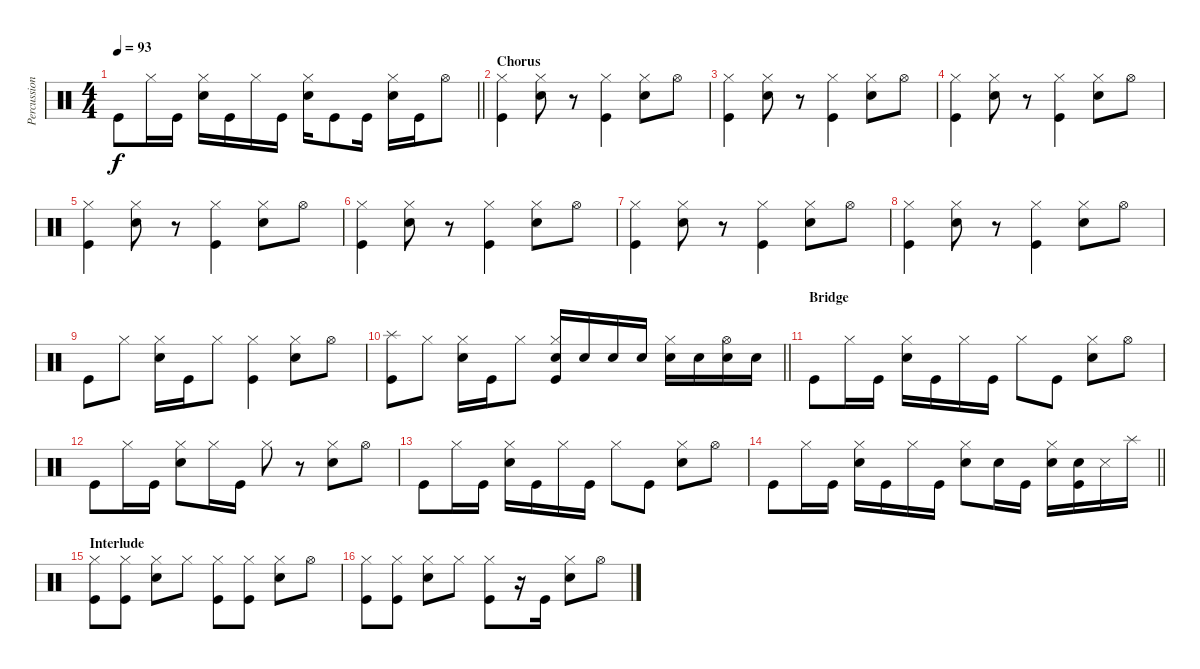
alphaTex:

\track ("Percussion" "Percussion") {instrument percussion}
\staff {score}
\articulation defaults
\ts (4 4)
\tempo 93
\clef neutral
\barLineRight lightlight
\ks c "Kick (hit)".8{dy f} "Hi-Hat (closed)".16 "Kick (hit)".16
("Hi-Hat (closed)" "Snare (hit) 2").16 "Kick (hit)".16 "Hi-Hat (closed)".16 "Kick (hit)".16 ("Hi-Hat (closed)" "Snare (hit) 2").16 "Kick (hit)".8 "Kick (hit)".16 ("Hi-Hat (closed)" "Snare (hit) 2").16 "Kick (hit)".16 "Hi-Hat (open)".8 |
\section ("" "Chorus")
("Hi-Hat (closed)" "Kick (hit)").4 ("Hi-Hat (closed)" "Snare (hit) 2").8 r.8 ("Hi-Hat (closed)" "Kick (hit)").4 ("Hi-Hat (closed)" "Snare (hit) 2").8 "Hi-Hat (open)".8 |
("Hi-Hat (closed)" "Kick (hit)").4 ("Hi-Hat (closed)" "Snare (hit) 2").8 r.8 ("Hi-Hat (closed)" "Kick (hit)").4 ("Hi-Hat (closed)" "Snare (hit) 2").8 "Hi-Hat (open)".8 |
("Hi-Hat (closed)" "Kick (hit)").4 ("Hi-Hat (closed)" "Snare (hit) 2").8 r.8 ("Hi-Hat (closed)" "Kick (hit)").4 ("Hi-Hat (closed)" "Snare (hit) 2").8 "Hi-Hat (open)".8 |
("Hi-Hat (closed)" "Kick (hit)").4 ("Hi-Hat (closed)" "Snare (hit) 2").8 r.8 ("Hi-Hat (closed)" "Kick (hit)").4 ("Hi-Hat (closed)" "Snare (hit) 2").8 "Hi-Hat (open)".8 |
("Hi-Hat (closed)" "Kick (hit)").4 ("Hi-Hat (closed)" "Snare (hit) 2").8 r.8 ("Hi-Hat (closed)" "Kick (hit)").4 ("Hi-Hat (closed)" "Snare (hit) 2").8 "Hi-Hat (open)".8 |
("Hi-Hat (closed)" "Kick (hit)").4 ("Hi-Hat (closed)" "Snare (hit) 2").8 r.8 ("Hi-Hat (closed)" "Kick (hit)").4 ("Hi-Hat (closed)" "Snare (hit) 2").8 "Hi-Hat (open)".8 |
("Hi-Hat (closed)" "Kick (hit)").4 ("Hi-Hat (closed)" "Snare (hit) 2").8 r.8 ("Hi-Hat (closed)" "Kick (hit)").4 ("Hi-Hat (closed)" "Snare (hit) 2").8 "Hi-Hat (open)".8 |
"Kick (hit)".8 "Hi-Hat (closed)".8 ("Hi-Hat (closed)" "Snare (hit) 2").16 "Kick (hit)".16 "Hi-Hat (closed)".8 ("Hi-Hat (closed)" "Kick (hit)").4 ("Hi-Hat (closed)" "Snare (hit) 2").8 "Hi-Hat (open)".8 |
\barLineRight lightlight
("Splash (hit)" "Kick (hit)").8 "Hi-Hat (closed)".8 ("Hi-Hat (closed)" "Snare (hit) 2").16 "Kick (hit)".16 "Hi-Hat (closed)".8 ("Hi-Hat (closed)" "Snare (hit) 2" "Kick (hit)").16 "Snare (hit) 2".16 "Snare (hit) 2".16 "Snare (hit) 2".16 ("Hi-Hat (closed)" "Snare (hit) 2").16 "Snare (hit) 2".16 ("Hi-Hat (open)" "Snare (hit) 2").16 "Snare (hit) 2".16 |
\section ("" "Bridge")
"Kick (hit)".8 "Hi-Hat (closed)".16 "Kick (hit)".16 ("Hi-Hat (closed)" "Snare (hit) 2").16 "Kick (hit)".16 "Hi-Hat (closed)".16 "Kick (hit)".16 "Hi-Hat (closed)".8 "Kick (hit)".8 ("Hi-Hat (closed)" "Snare (hit) 2").8 "Hi-Hat (open)".8 |
"Kick (hit)".8 "Hi-Hat (closed)".16 "Kick (hit)".16 ("Hi-Hat (closed)" "Snare (hit) 2").8 "Hi-Hat (closed)".16 "Kick (hit)".16 "Hi-Hat (closed)".8 r.8 ("Hi-Hat (closed)" "Snare (hit) 2").8 "Hi-Hat (open)".8 |
"Kick (hit)".8 "Hi-Hat (closed)".16 "Kick (hit)".16 ("Hi-Hat (closed)" "Snare (hit) 2").16 "Kick (hit)".16 "Hi-Hat (closed)".16 "Kick (hit)".16 "Hi-Hat (closed)".8 "Kick (hit)".8 ("Hi-Hat (closed)" "Snare (hit) 2").8 "Hi-Hat (open)".8 |
\barLineRight lightlight "Kick (hit)".8 "Hi-Hat (closed)".16 "Kick (hit)".16
("Hi-Hat (closed)" "Snare (hit) 2").16 "Kick (hit)".16 "Hi-Hat (closed)".16 "Kick (hit)".16 ("Hi-Hat (closed)" "Snare (hit) 2").8 "Snare (hit) 2".16 "Kick (hit)".16 ("Hi-Hat (closed)" "Snare (hit) 2").16 ("Snare (hit) 2" "Kick (hit)").16 "Snare (side stick) 3".16 "Splash (hit)".16 |
\section ("" "Interlude")
("Hi-Hat (closed)" "Kick (hit)").8 ("Hi-Hat (closed)" "Kick (hit)").8 ("Hi-Hat (closed)" "Snare (hit) 2").8 "Hi-Hat (closed)".8 ("Hi-Hat (closed)" "Kick (hit)").8 ("Hi-Hat (closed)" "Kick (hit)").8 ("Hi-Hat (closed)" "Snare (hit) 2").8 "Hi-Hat (open)".8 |
("Hi-Hat (closed)" "Kick (hit)").8 ("Hi-Hat (closed)" "Kick (hit)").8 ("Hi-Hat (closed)" "Snare (hit) 2").8 "Hi-Hat (closed)".8 ("Hi-Hat (closed)" "Kick (hit)").8 r.16 "Kick (hit)".16 ("Hi-Hat (closed)" "Snare (hit) 2").8 "Hi-Hat (open)".8
